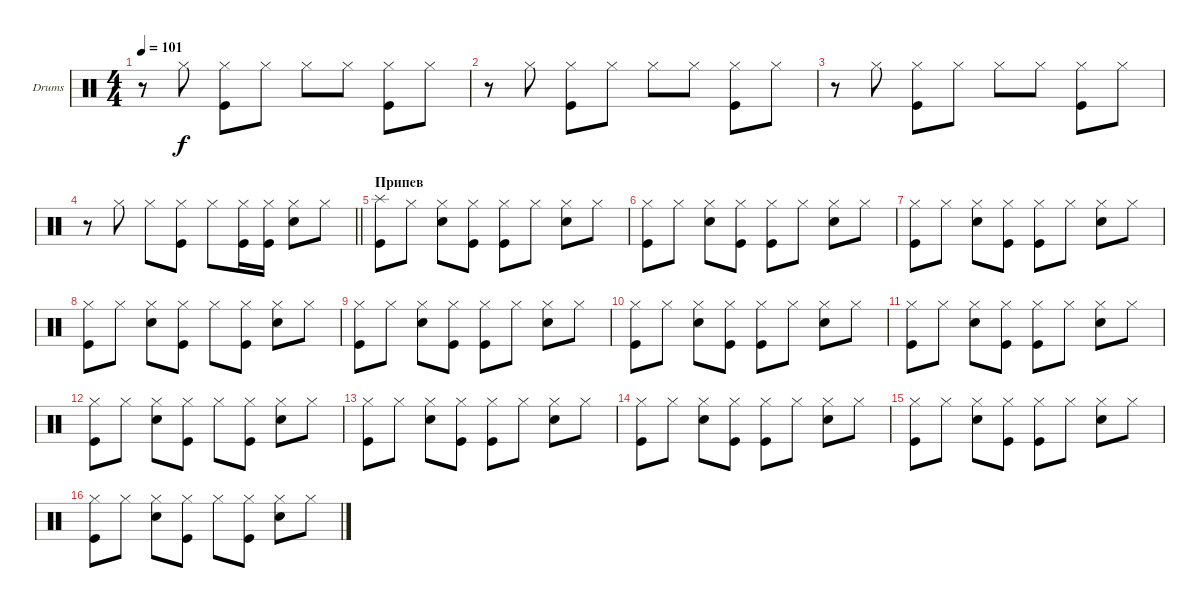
\bracketExtendMode groupsimilarinstruments
\firstSystemTrackNameOrientation horizontal
\otherSystemsTrackNameOrientation horizontal
\track ("Drumkit" "Drums") {instrument percussion}
\staff {score}
\articulation defaults
\ts (4 4)
\tempo 101
\clef neutral
\ks c
r.8{dy f} "Hi-Hat (closed)".8 ("Hi-Hat (closed)" "Kick (hit)").8 "Hi-Hat (closed)".8 "Hi-Hat (closed)".8 "Hi-Hat (closed)".8 ("Hi-Hat (closed)" "Kick (hit)").8 "Hi-Hat (closed)".8 |
r.8 "Hi-Hat (closed)".8 ("Hi-Hat (closed)" "Kick (hit)").8 "Hi-Hat (closed)".8 "Hi-Hat (closed)".8 "Hi-Hat (closed)".8 ("Hi-Hat (closed)" "Kick (hit)").8 "Hi-Hat (closed)".8 |
r.8 "Hi-Hat (closed)".8 ("Hi-Hat (closed)" "Kick (hit)").8 "Hi-Hat (closed)".8 "Hi-Hat (closed)".8 "Hi-Hat (closed)".8 ("Hi-Hat (closed)" "Kick (hit)").8 "Hi-Hat (closed)".8 |
\barLineRight lightlight
r.8 "Hi-Hat (closed)".8 "Hi-Hat (closed)".8 ("Hi-Hat (closed)" "Kick (hit)").8 "Hi-Hat (closed)".8 ("Hi-Hat (closed)" "Kick (hit)").16 ("Hi-Hat (closed)" "Kick (hit)").16 ("Hi-Hat (closed)" "Snare (hit) 2").8 "Hi-Hat (closed)".8 |
\section ("" "Припев")
("Splash (hit)" "Kick (hit)").8 "Hi-Hat (closed)".8 ("Hi-Hat (closed)" "Snare (hit) 2").8 ("Hi-Hat (closed)" "Kick (hit)").8 ("Hi-Hat (closed)" "Kick (hit)").8 "Hi-Hat (closed)".8 ("Hi-Hat (closed)" "Snare (hit) 2").8 "Hi-Hat (closed)".8 |
("Hi-Hat (closed)" "Kick (hit)").8 "Hi-Hat (closed)".8 ("Hi-Hat (closed)" "Snare (hit) 2").8 ("Hi-Hat (closed)" "Kick (hit)").8 ("Hi-Hat (closed)" "Kick (hit)").8 "Hi-Hat (closed)".8 ("Hi-Hat (closed)" "Snare (hit) 2").8 "Hi-Hat (closed)".8 |
("Hi-Hat (closed)" "Kick (hit)").8 "Hi-Hat (closed)".8 ("Hi-Hat (closed)" "Snare (hit) 2").8 ("Hi-Hat (closed)" "Kick (hit)").8 ("Hi-Hat (closed)" "Kick (hit)").8 "Hi-Hat (closed)".8 ("Hi-Hat (closed)" "Snare (hit) 2").8 "Hi-Hat (closed)".8 |
("Hi-Hat (closed)" "Kick (hit)").8 "Hi-Hat (closed)".8 ("Hi-Hat (closed)" "Snare (hit) 2").8 ("Hi-Hat (closed)" "Kick (hit)").8 "Hi-Hat (closed)".8 ("Hi-Hat (closed)" "Kick (hit)").8 ("Hi-Hat (closed)" "Snare (hit) 2").8 "Hi-Hat (closed)".8 |
("Hi-Hat (closed)" "Kick (hit)").8 "Hi-Hat (closed)".8 ("Hi-Hat (closed)" "Snare (hit) 2").8 ("Hi-Hat (closed)" "Kick (hit)").8 ("Hi-Hat (closed)" "Kick (hit)").8 "Hi-Hat (closed)".8 ("Hi-Hat (closed)" "Snare (hit) 2").8 "Hi-Hat (closed)".8 |
("Hi-Hat (closed)" "Kick (hit)").8 "Hi-Hat (closed)".8 ("Hi-Hat (closed)" "Snare (hit) 2").8 ("Hi-Hat (closed)" "Kick (hit)").8 ("Hi-Hat (closed)" "Kick (hit)").8 "Hi-Hat (closed)".8 ("Hi-Hat (closed)" "Snare (hit) 2").8 "Hi-Hat (closed)".8 |
("Hi-Hat (closed)" "Kick (hit)").8 "Hi-Hat (closed)".8 ("Hi-Hat (closed)" "Snare (hit) 2").8 ("Hi-Hat (closed)" "Kick (hit)").8 ("Hi-Hat (closed)" "Kick (hit)").8 "Hi-Hat (closed)".8 ("Hi-Hat (closed)" "Snare (hit) 2").8 "Hi-Hat (closed)".8 |
("Hi-Hat (closed)" "Kick (hit)").8 "Hi-Hat (closed)".8 ("Hi-Hat (closed)" "Snare (hit) 2").8 ("Hi-Hat (closed)" "Kick (hit)").8 "Hi-Hat (closed)".8 ("Hi-Hat (closed)" "Kick (hit)").8 ("Hi-Hat (closed)" "Snare (hit) 2").8 "Hi-Hat (closed)".8 |
("Hi-Hat (closed)" "Kick (hit)").8 "Hi-Hat (closed)".8 ("Hi-Hat (closed)" "Snare (hit) 2").8 ("Hi-Hat (closed)" "Kick (hit)").8 ("Hi-Hat (closed)" "Kick (hit)").8 "Hi-Hat (closed)".8 ("Hi-Hat (closed)" "Snare (hit) 2").8 "Hi-Hat (closed)".8 |
("Hi-Hat (closed)" "Kick (hit)").8 "Hi-Hat (closed)".8 ("Hi-Hat (closed)" "Snare (hit) 2").8 ("Hi-Hat (closed)" "Kick (hit)").8 ("Hi-Hat (closed)" "Kick (hit)").8 "Hi-Hat (closed)".8 ("Hi-Hat (closed)" "Snare (hit) 2").8 "Hi-Hat (closed)".8 |
("Hi-Hat (closed)" "Kick (hit)").8 "Hi-Hat (closed)".8 ("Hi-Hat (closed)" "Snare (hit) 2").8 ("Hi-Hat (closed)" "Kick (hit)").8 ("Hi-Hat (closed)" "Kick (hit)").8 "Hi-Hat (closed)".8 ("Hi-Hat (closed)" "Snare (hit) 2").8 "Hi-Hat (closed)".8 |
("Hi-Hat (closed)" "Kick (hit)").8 "Hi-Hat (closed)".8 ("Hi-Hat (closed)" "Snare (hit) 2").8 ("Hi-Hat (closed)" "Kick (hit)").8 "Hi-Hat (closed)".8 ("Hi-Hat (closed)" "Kick (hit)").8 ("Hi-Hat (closed)" "Snare (hit) 2").8 "Hi-Hat (closed)".8
